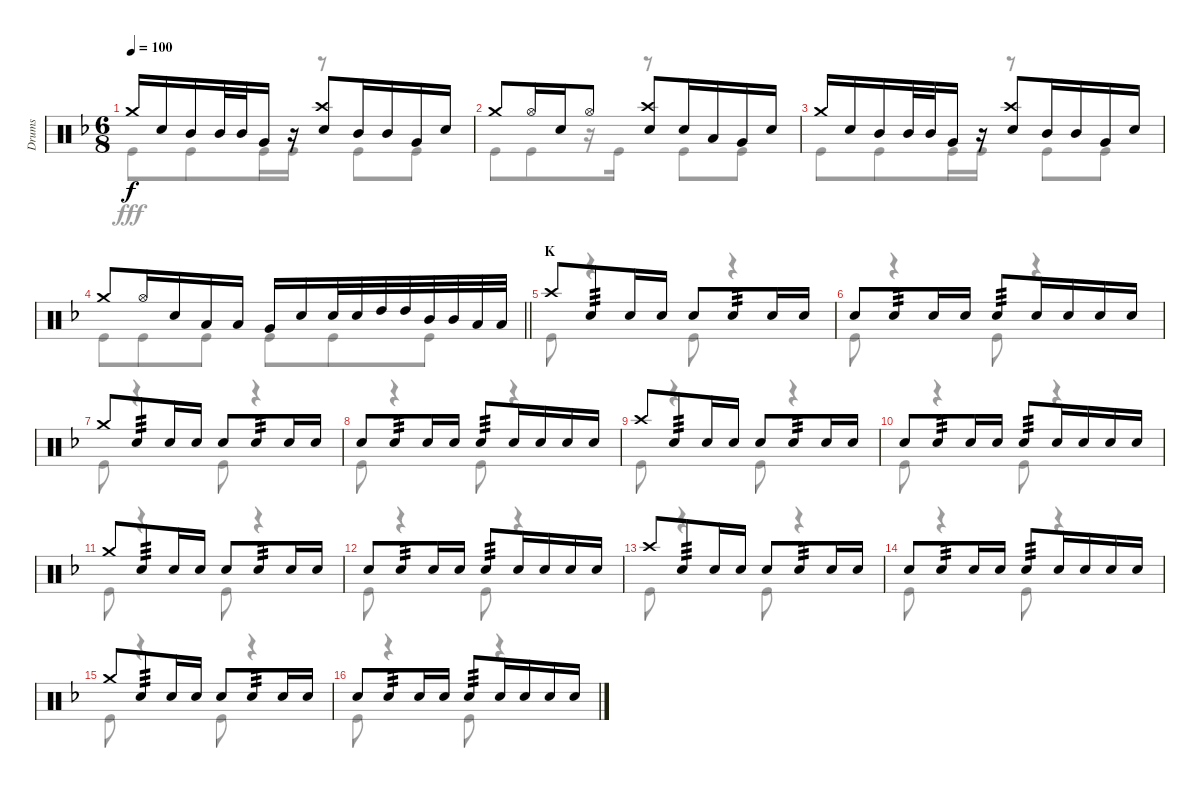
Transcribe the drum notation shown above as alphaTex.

\track ("Drums" "Drums") {instrument percussion}
\staff {score}
\articulation defaults
\voice
\ts (6 8)
\tempo 100
\clef neutral
\ks f "Crash medium (hit)".16{dy f} "Snare (hit) 2".16 "Mid Tom (hit)".16 "Mid Tom (hit)".32 "Mid Tom (hit)".32 "Very Low Tom (hit)".16
r.16 ("Crash high (hit)" "Snare (hit) 2").8 "Mid Tom (hit)".16 "Mid Tom (hit)".16 "Very Low Tom (hit)".16 "Snare (hit) 2".16 |
"Crash medium (hit)".8 "Hi-Hat (open)".16 "Snare (hit) 2".16 "Hi-Hat (open)".8 ("Crash high (hit)" "Snare (hit) 2").8 "Snare (hit) 2".16 "Low Tom (hit)".16 "Very Low Tom (hit)".16 "Snare (hit) 2".16 |
"Crash medium (hit)".16 "Snare (hit) 2".16 "Mid Tom (hit)".16 "Mid Tom (hit)".32 "Mid Tom (hit)".32 "Very Low Tom (hit)".16 r.16 ("Crash high (hit)" "Snare (hit) 2").8 "Mid Tom (hit)".16 "Mid Tom (hit)".16 "Very Low Tom (hit)".16 "Snare (hit) 2".16 |
\barLineRight lightlight "Crash medium (hit)".8 "Hi-Hat (open)".16 "Snare (hit) 2".16 "Low Tom (hit)".16 "Low Tom (hit)".16 "Very Low Tom (hit)".16 "Snare (hit) 2".16 "Snare (hit) 2".32 "Snare (hit) 2".32 "High Tom (hit)".32 "High Tom (hit)".32 "Mid Tom (hit)".32 "Mid Tom (hit)".32 "Low Tom (hit)".32 "Low Tom (hit)".32
|
\section ("" "K")
"Crash high (hit)".8 "Snare (hit) 2".8{tp 3} "Snare (hit) 2".16 "Snare (hit) 2".16 "Snare (hit) 2".8 "Snare (hit) 2".8{tp 3} "Snare (hit) 2".16 "Snare (hit) 2".16 |
"Snare (hit) 2".8 "Snare (hit) 2".8{tp 3} "Snare (hit) 2".16 "Snare (hit) 2".16 "Snare (hit) 2".8{tp 3} "Snare (hit) 2".16 "Snare (hit) 2".16 "Snare (hit) 2".16 "Snare (hit) 2".16 |
"Crash medium (hit)".8 "Snare (hit) 2".8{tp 3} "Snare (hit) 2".16 "Snare (hit) 2".16 "Snare (hit) 2".8 "Snare (hit) 2".8{tp 3} "Snare (hit) 2".16 "Snare (hit) 2".16 |
"Snare (hit) 2".8 "Snare (hit) 2".8{tp 3} "Snare (hit) 2".16 "Snare (hit) 2".16 "Snare (hit) 2".8{tp 3} "Snare (hit) 2".16 "Snare (hit) 2".16 "Snare (hit) 2".16 "Snare (hit) 2".16 |
"Crash high (hit)".8 "Snare (hit) 2".8{tp 3} "Snare (hit) 2".16 "Snare (hit) 2".16 "Snare (hit) 2".8 "Snare (hit) 2".8{tp 3} "Snare (hit) 2".16 "Snare (hit) 2".16 |
"Snare (hit) 2".8 "Snare (hit) 2".8{tp 3} "Snare (hit) 2".16 "Snare (hit) 2".16 "Snare (hit) 2".8{tp 3} "Snare (hit) 2".16 "Snare (hit) 2".16 "Snare (hit) 2".16 "Snare (hit) 2".16 |
"Crash medium (hit)".8 "Snare (hit) 2".8{tp 3} "Snare (hit) 2".16 "Snare (hit) 2".16 "Snare (hit) 2".8 "Snare (hit) 2".8{tp 3} "Snare (hit) 2".16 "Snare (hit) 2".16 |
"Snare (hit) 2".8 "Snare (hit) 2".8{tp 3} "Snare (hit) 2".16 "Snare (hit) 2".16 "Snare (hit) 2".8{tp 3} "Snare (hit) 2".16 "Snare (hit) 2".16 "Snare (hit) 2".16 "Snare (hit) 2".16 |
"Crash high (hit)".8 "Snare (hit) 2".8{tp 3} "Snare (hit) 2".16 "Snare (hit) 2".16 "Snare (hit) 2".8 "Snare (hit) 2".8{tp 3} "Snare (hit) 2".16 "Snare (hit) 2".16 |
"Snare (hit) 2".8 "Snare (hit) 2".8{tp 3} "Snare (hit) 2".16 "Snare (hit) 2".16 "Snare (hit) 2".8{tp 3} "Snare (hit) 2".16 "Snare (hit) 2".16 "Snare (hit) 2".16 "Snare (hit) 2".16 |
"Crash medium (hit)".8 "Snare (hit) 2".8{tp 3} "Snare (hit) 2".16 "Snare (hit) 2".16 "Snare (hit) 2".8 "Snare (hit) 2".8{tp 3} "Snare (hit) 2".16 "Snare (hit) 2".16 |
"Snare (hit) 2".8 "Snare (hit) 2".8{tp 3} "Snare (hit) 2".16 "Snare (hit) 2".16 "Snare (hit) 2".8{tp 3} "Snare (hit) 2".16 "Snare (hit) 2".16 "Snare (hit) 2".16 "Snare (hit) 2".16
\voice
\clef neutral
\ottava regular
\simile none
\ks f "Kick (hit)".8{dy fff} "Kick (hit)".8 "Kick (hit)".16 "Kick (hit)".16
r.8 "Kick (hit)".8 "Kick (hit)".8 |
"Kick (hit)".8 "Kick (hit)".8 r.16 "Kick (hit)".16 r.8 "Kick (hit)".8 "Kick (hit)".8 |
"Kick (hit)".8 "Kick (hit)".8 "Kick (hit)".16 "Kick (hit)".16 r.8 "Kick (hit)".8 "Kick (hit)".8 |
\barLineRight lightlight "Kick (hit)".8 "Kick (hit)".8 "Kick (hit)".8 "Kick (hit)".8 "Kick (hit)".8 "Kick (hit)".8
|
"Kick (hit)".8 r.4 "Kick (hit)".8 r.4 |
"Kick (hit)".8 r.4 "Kick (hit)".8 r.4 |
"Kick (hit)".8 r.4 "Kick (hit)".8 r.4 |
"Kick (hit)".8 r.4 "Kick (hit)".8 r.4 |
"Kick (hit)".8 r.4 "Kick (hit)".8 r.4 |
"Kick (hit)".8 r.4 "Kick (hit)".8 r.4 |
"Kick (hit)".8 r.4 "Kick (hit)".8 r.4 |
"Kick (hit)".8 r.4 "Kick (hit)".8 r.4 |
"Kick (hit)".8 r.4 "Kick (hit)".8 r.4 |
"Kick (hit)".8 r.4 "Kick (hit)".8 r.4 |
"Kick (hit)".8 r.4 "Kick (hit)".8 r.4 |
"Kick (hit)".8 r.4 "Kick (hit)".8 r.4
